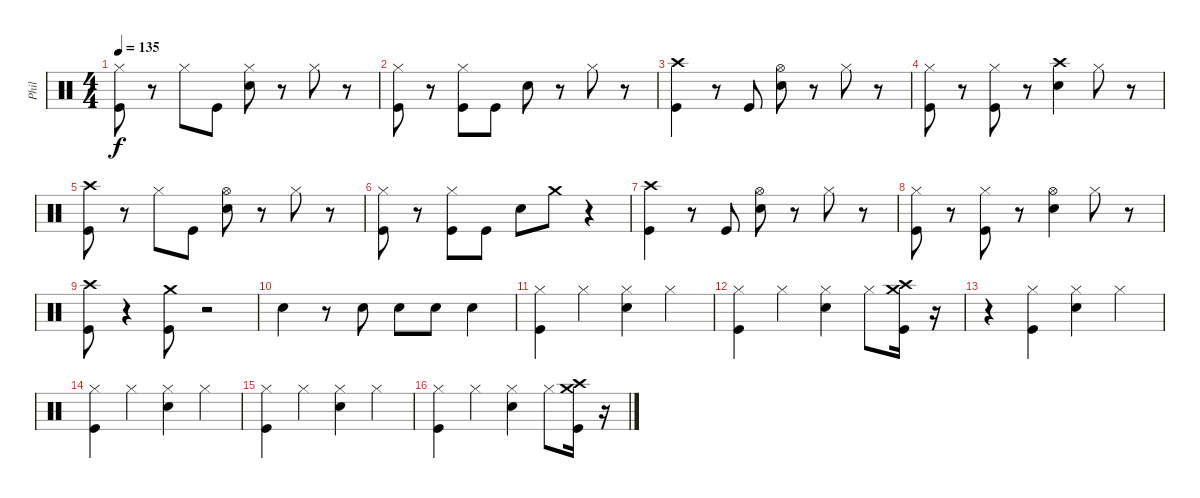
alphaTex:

\track ("Phil" "Phil") {instrument percussion}
\staff {score}
\articulation defaults
\ts (4 4)
\tempo 135
\clef neutral
\ks c
("Hi-Hat (closed)" "Kick (hit)").8{dy f} r.8 "Hi-Hat (closed)".8 "Kick (hit)".8 ("Hi-Hat (closed)" "Snare (hit) 2").8 r.8 "Hi-Hat (closed)".8 r.8 |
("Hi-Hat (closed)" "Kick (hit)").8 r.8 ("Hi-Hat (closed)" "Kick (hit)").8 "Kick (hit)".8 "Snare (hit) 2".8 r.8 "Hi-Hat (closed)".8 r.8 |
("Kick (hit)" "Crash high (hit)").4 r.8 "Kick (hit)".8 ("Hi-Hat (open)" "Snare (hit) 2").8 r.8 "Hi-Hat (closed)".8 r.8 |
("Hi-Hat (closed)" "Kick (hit)").8 r.8 ("Hi-Hat (closed)" "Kick (hit)").8 r.8 ("Crash high (hit)" "Snare (hit) 2").4 "Hi-Hat (closed)".8 r.8 |
("Kick (hit)" "Crash high (hit)").8 r.8 "Hi-Hat (closed)".8 "Kick (hit)".8 ("Hi-Hat (open)" "Snare (hit) 2").8 r.8 "Hi-Hat (closed)".8 r.8 |
("Hi-Hat (closed)" "Kick (hit)").8 r.8 ("Hi-Hat (closed)" "Kick (hit)").8 "Kick (hit)".8 "Snare (hit) 2".8 "Crash medium (hit)".8 r.4 |
("Kick (hit)" "Crash high (hit)").4 r.8 "Kick (hit)".8 ("Hi-Hat (open)" "Snare (hit) 2").8 r.8 "Hi-Hat (closed)".8 r.8 |
("Hi-Hat (closed)" "Kick (hit)").8 r.8 ("Hi-Hat (closed)" "Kick (hit)").8 r.8 ("Hi-Hat (open)" "Snare (hit) 2").4 "Hi-Hat (closed)".8 r.8 |
("Kick (hit)" "Crash high (hit)").8 r.4 ("Crash medium (hit)" "Kick (hit)").8 r.2 |
"Snare (hit) 2".4 r.8 "Snare (hit) 2".8 "Snare (hit) 2".8 "Snare (hit) 2".8 "Snare (hit) 2".4 |
("Kick (hit)" "Hi-Hat (closed)").4 "Hi-Hat (closed)".4 ("Snare (hit) 2" "Hi-Hat (closed)").4 "Hi-Hat (closed)".4 |
("Kick (hit)" "Hi-Hat (closed)").4 "Hi-Hat (closed)".4 ("Snare (hit) 2" "Hi-Hat (closed)").4 "Hi-Hat (closed)".8 ("Crash high (hit)" "Kick (hit)" "Crash medium (hit)").16 r.16 |
r.4 ("Kick (hit)" "Hi-Hat (closed)").4 ("Snare (hit) 2" "Hi-Hat (closed)").4 "Hi-Hat (closed)".4 |
("Kick (hit)" "Hi-Hat (closed)").4 "Hi-Hat (closed)".4 ("Snare (hit) 2" "Hi-Hat (closed)").4 "Hi-Hat (closed)".4 |
("Kick (hit)" "Hi-Hat (closed)").4 "Hi-Hat (closed)".4 ("Snare (hit) 2" "Hi-Hat (closed)").4 "Hi-Hat (closed)".4 |
("Kick (hit)" "Hi-Hat (closed)").4 "Hi-Hat (closed)".4 ("Snare (hit) 2" "Hi-Hat (closed)").4 "Hi-Hat (closed)".8 ("Crash medium (hit)" "Crash high (hit)" "Kick (hit)").16 r.16
